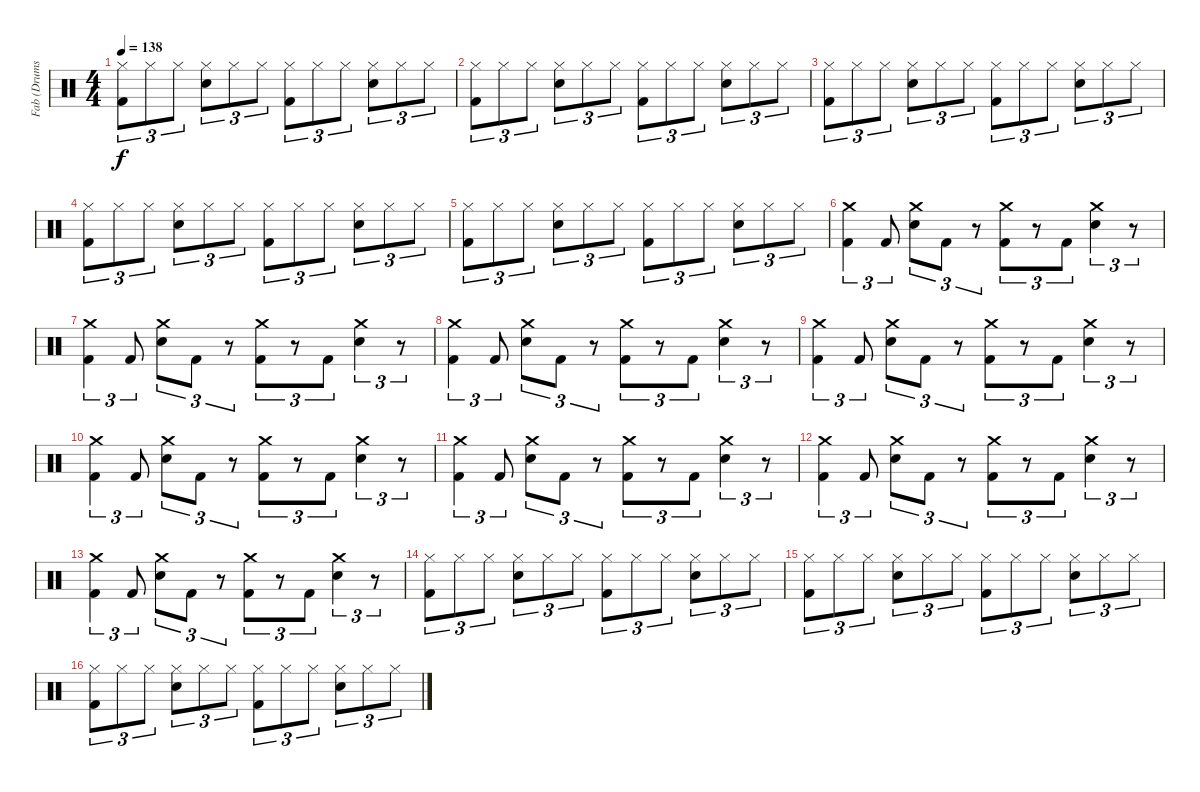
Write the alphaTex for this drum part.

\track ("Fab (Drums)" "Fab (Drums") {instrument percussion}
\staff {score}
\articulation defaults
\ts (4 4)
\tempo 138
\clef neutral
\ks c
("Hi-Hat (closed)" "Kick (hit) 2").8{tu (3 2) dy f} "Hi-Hat (closed)".8{tu (3 2)} "Hi-Hat (closed)".8{tu (3 2)} ("Hi-Hat (closed)" "Electric Snare (hit)").8{tu (3 2)} "Hi-Hat (closed)".8{tu (3 2)} "Hi-Hat (closed)".8{tu (3 2)} ("Hi-Hat (closed)" "Kick (hit) 2").8{tu (3 2)} "Hi-Hat (closed)".8{tu (3 2)} "Hi-Hat (closed)".8{tu (3 2)} ("Hi-Hat (closed)" "Electric Snare (hit)").8{tu (3 2)} "Hi-Hat (closed)".8{tu (3 2)} "Hi-Hat (closed)".8{tu (3 2)} |
("Hi-Hat (closed)" "Kick (hit) 2").8{tu (3 2)} "Hi-Hat (closed)".8{tu (3 2)} "Hi-Hat (closed)".8{tu (3 2)} ("Hi-Hat (closed)" "Electric Snare (hit)").8{tu (3 2)} "Hi-Hat (closed)".8{tu (3 2)} "Hi-Hat (closed)".8{tu (3 2)} ("Hi-Hat (closed)" "Kick (hit) 2").8{tu (3 2)} "Hi-Hat (closed)".8{tu (3 2)} "Hi-Hat (closed)".8{tu (3 2)} ("Hi-Hat (closed)" "Electric Snare (hit)").8{tu (3 2)} "Hi-Hat (closed)".8{tu (3 2)} "Hi-Hat (closed)".8{tu (3 2)} |
("Hi-Hat (closed)" "Kick (hit) 2").8{tu (3 2)} "Hi-Hat (closed)".8{tu (3 2)} "Hi-Hat (closed)".8{tu (3 2)} ("Hi-Hat (closed)" "Electric Snare (hit)").8{tu (3 2)} "Hi-Hat (closed)".8{tu (3 2)} "Hi-Hat (closed)".8{tu (3 2)} ("Hi-Hat (closed)" "Kick (hit) 2").8{tu (3 2)} "Hi-Hat (closed)".8{tu (3 2)} "Hi-Hat (closed)".8{tu (3 2)} ("Hi-Hat (closed)" "Electric Snare (hit)").8{tu (3 2)} "Hi-Hat (closed)".8{tu (3 2)} "Hi-Hat (closed)".8{tu (3 2)} |
("Hi-Hat (closed)" "Kick (hit) 2").8{tu (3 2)} "Hi-Hat (closed)".8{tu (3 2)} "Hi-Hat (closed)".8{tu (3 2)} ("Hi-Hat (closed)" "Electric Snare (hit)").8{tu (3 2)} "Hi-Hat (closed)".8{tu (3 2)} "Hi-Hat (closed)".8{tu (3 2)} ("Hi-Hat (closed)" "Kick (hit) 2").8{tu (3 2)} "Hi-Hat (closed)".8{tu (3 2)} "Hi-Hat (closed)".8{tu (3 2)} ("Hi-Hat (closed)" "Electric Snare (hit)").8{tu (3 2)} "Hi-Hat (closed)".8{tu (3 2)} "Hi-Hat (closed)".8{tu (3 2)} |
("Hi-Hat (closed)" "Kick (hit) 2").8{tu (3 2)} "Hi-Hat (closed)".8{tu (3 2)} "Hi-Hat (closed)".8{tu (3 2)} ("Hi-Hat (closed)" "Electric Snare (hit)").8{tu (3 2)} "Hi-Hat (closed)".8{tu (3 2)} "Hi-Hat (closed)".8{tu (3 2)} ("Hi-Hat (closed)" "Kick (hit) 2").8{tu (3 2)} "Hi-Hat (closed)".8{tu (3 2)} "Hi-Hat (closed)".8{tu (3 2)} ("Hi-Hat (closed)" "Electric Snare (hit)").8{tu (3 2)} "Hi-Hat (closed)".8{tu (3 2)} "Hi-Hat (closed)".8{tu (3 2)} |
("Crash medium (hit)" "Kick (hit) 2").4{tu (3 2)} "Kick (hit) 2".8{tu (3 2)} ("Crash medium (hit)" "Electric Snare (hit)").8{tu (3 2)} "Kick (hit) 2".8{tu (3 2)} r.8{tu (3 2)} ("Crash medium (hit)" "Kick (hit) 2").8{tu (3 2)} r.8{tu (3 2)} "Kick (hit) 2".8{tu (3 2)} ("Crash medium (hit)" "Electric Snare (hit)").4{tu (3 2)} r.8{tu (3 2)} |
("Crash medium (hit)" "Kick (hit) 2").4{tu (3 2)} "Kick (hit) 2".8{tu (3 2)} ("Crash medium (hit)" "Electric Snare (hit)").8{tu (3 2)} "Kick (hit) 2".8{tu (3 2)} r.8{tu (3 2)} ("Crash medium (hit)" "Kick (hit) 2").8{tu (3 2)} r.8{tu (3 2)} "Kick (hit) 2".8{tu (3 2)} ("Crash medium (hit)" "Electric Snare (hit)").4{tu (3 2)} r.8{tu (3 2)} |
("Crash medium (hit)" "Kick (hit) 2").4{tu (3 2)} "Kick (hit) 2".8{tu (3 2)} ("Crash medium (hit)" "Electric Snare (hit)").8{tu (3 2)} "Kick (hit) 2".8{tu (3 2)} r.8{tu (3 2)} ("Crash medium (hit)" "Kick (hit) 2").8{tu (3 2)} r.8{tu (3 2)} "Kick (hit) 2".8{tu (3 2)} ("Crash medium (hit)" "Electric Snare (hit)").4{tu (3 2)} r.8{tu (3 2)} |
("Crash medium (hit)" "Kick (hit) 2").4{tu (3 2)} "Kick (hit) 2".8{tu (3 2)} ("Crash medium (hit)" "Electric Snare (hit)").8{tu (3 2)} "Kick (hit) 2".8{tu (3 2)} r.8{tu (3 2)} ("Crash medium (hit)" "Kick (hit) 2").8{tu (3 2)} r.8{tu (3 2)} "Kick (hit) 2".8{tu (3 2)} ("Crash medium (hit)" "Electric Snare (hit)").4{tu (3 2)} r.8{tu (3 2)} |
("Crash medium (hit)" "Kick (hit) 2").4{tu (3 2)} "Kick (hit) 2".8{tu (3 2)} ("Crash medium (hit)" "Electric Snare (hit)").8{tu (3 2)} "Kick (hit) 2".8{tu (3 2)} r.8{tu (3 2)} ("Crash medium (hit)" "Kick (hit) 2").8{tu (3 2)} r.8{tu (3 2)} "Kick (hit) 2".8{tu (3 2)} ("Crash medium (hit)" "Electric Snare (hit)").4{tu (3 2)} r.8{tu (3 2)} |
("Crash medium (hit)" "Kick (hit) 2").4{tu (3 2)} "Kick (hit) 2".8{tu (3 2)} ("Crash medium (hit)" "Electric Snare (hit)").8{tu (3 2)} "Kick (hit) 2".8{tu (3 2)} r.8{tu (3 2)} ("Crash medium (hit)" "Kick (hit) 2").8{tu (3 2)} r.8{tu (3 2)} "Kick (hit) 2".8{tu (3 2)} ("Crash medium (hit)" "Electric Snare (hit)").4{tu (3 2)} r.8{tu (3 2)} |
("Crash medium (hit)" "Kick (hit) 2").4{tu (3 2)} "Kick (hit) 2".8{tu (3 2)} ("Crash medium (hit)" "Electric Snare (hit)").8{tu (3 2)} "Kick (hit) 2".8{tu (3 2)} r.8{tu (3 2)} ("Crash medium (hit)" "Kick (hit) 2").8{tu (3 2)} r.8{tu (3 2)} "Kick (hit) 2".8{tu (3 2)} ("Crash medium (hit)" "Electric Snare (hit)").4{tu (3 2)} r.8{tu (3 2)} |
("Crash medium (hit)" "Kick (hit) 2").4{tu (3 2)} "Kick (hit) 2".8{tu (3 2)} ("Crash medium (hit)" "Electric Snare (hit)").8{tu (3 2)} "Kick (hit) 2".8{tu (3 2)} r.8{tu (3 2)} ("Crash medium (hit)" "Kick (hit) 2").8{tu (3 2)} r.8{tu (3 2)} "Kick (hit) 2".8{tu (3 2)} ("Crash medium (hit)" "Electric Snare (hit)").4{tu (3 2)} r.8{tu (3 2)} |
("Hi-Hat (closed)" "Kick (hit) 2").8{tu (3 2)} "Hi-Hat (closed)".8{tu (3 2)} "Hi-Hat (closed)".8{tu (3 2)} ("Hi-Hat (closed)" "Electric Snare (hit)").8{tu (3 2)} "Hi-Hat (closed)".8{tu (3 2)} "Hi-Hat (closed)".8{tu (3 2)} ("Hi-Hat (closed)" "Kick (hit) 2").8{tu (3 2)} "Hi-Hat (closed)".8{tu (3 2)} "Hi-Hat (closed)".8{tu (3 2)} ("Hi-Hat (closed)" "Electric Snare (hit)").8{tu (3 2)} "Hi-Hat (closed)".8{tu (3 2)} "Hi-Hat (closed)".8{tu (3 2)} |
("Hi-Hat (closed)" "Kick (hit) 2").8{tu (3 2)} "Hi-Hat (closed)".8{tu (3 2)} "Hi-Hat (closed)".8{tu (3 2)} ("Hi-Hat (closed)" "Electric Snare (hit)").8{tu (3 2)} "Hi-Hat (closed)".8{tu (3 2)} "Hi-Hat (closed)".8{tu (3 2)} ("Hi-Hat (closed)" "Kick (hit) 2").8{tu (3 2)} "Hi-Hat (closed)".8{tu (3 2)} "Hi-Hat (closed)".8{tu (3 2)} ("Hi-Hat (closed)" "Electric Snare (hit)").8{tu (3 2)} "Hi-Hat (closed)".8{tu (3 2)} "Hi-Hat (closed)".8{tu (3 2)} |
("Hi-Hat (closed)" "Kick (hit) 2").8{tu (3 2)} "Hi-Hat (closed)".8{tu (3 2)} "Hi-Hat (closed)".8{tu (3 2)} ("Hi-Hat (closed)" "Electric Snare (hit)").8{tu (3 2)} "Hi-Hat (closed)".8{tu (3 2)} "Hi-Hat (closed)".8{tu (3 2)} ("Hi-Hat (closed)" "Kick (hit) 2").8{tu (3 2)} "Hi-Hat (closed)".8{tu (3 2)} "Hi-Hat (closed)".8{tu (3 2)} ("Hi-Hat (closed)" "Electric Snare (hit)").8{tu (3 2)} "Hi-Hat (closed)".8{tu (3 2)} "Hi-Hat (closed)".8{tu (3 2)}
